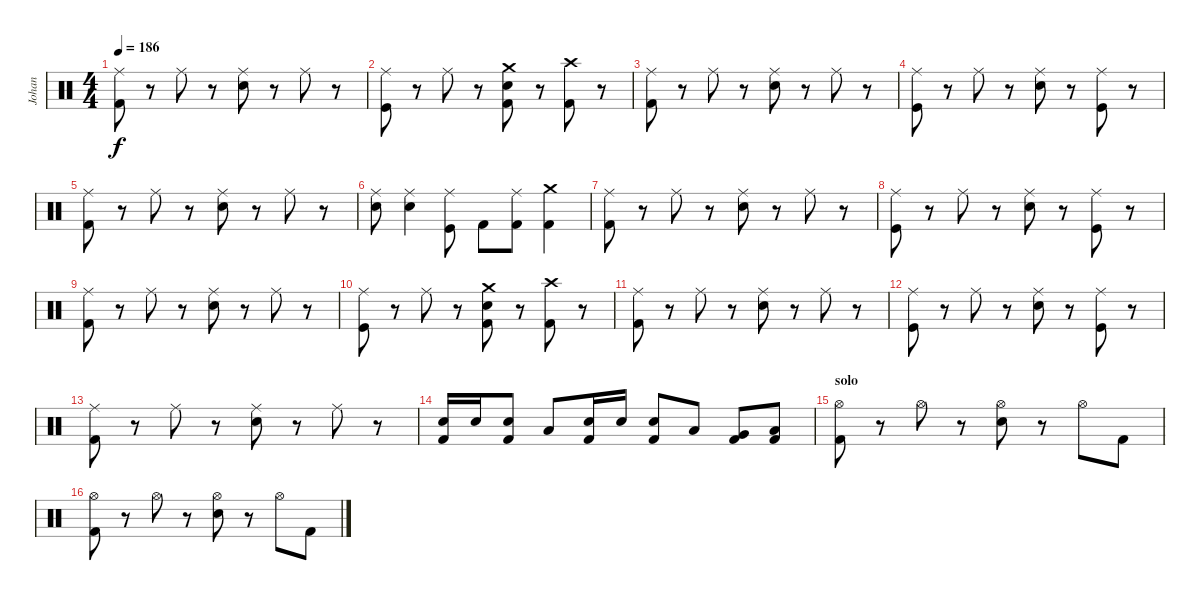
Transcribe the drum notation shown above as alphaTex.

\track ("Johan" "Johan") {instrument percussion}
\staff {score}
\articulation defaults
\ts (4 4)
\tempo 186
\clef neutral
\ks c
("Ride (middle)" "Kick (hit) 2").8{dy f} r.8 "Ride (middle)".8 r.8 ("Ride (middle)" "Snare (hit) 2").8 r.8 "Ride (middle)".8 r.8 |
("Ride (middle)" "Kick (hit)").8 r.8 "Ride (middle)".8 r.8 ("Crash medium (hit)" "Snare (hit) 2" "Kick (hit) 2").8 r.8 ("Crash high (hit)" "Kick (hit) 2").8 r.8 |
("Ride (middle)" "Kick (hit) 2").8 r.8 "Ride (middle)".8 r.8 ("Ride (middle)" "Snare (hit) 2").8 r.8 "Ride (middle)".8 r.8 |
("Ride (middle)" "Kick (hit)").8 r.8 "Ride (middle)".8 r.8 ("Ride (middle)" "Snare (hit) 2").8 r.8 ("Ride (middle)" "Kick (hit)").8 r.8 |
("Ride (middle)" "Kick (hit) 2").8 r.8 "Ride (middle)".8 r.8 ("Ride (middle)" "Snare (hit) 2").8 r.8 "Ride (middle)".8 r.8 |
("Ride (middle)" "Snare (hit) 2").8 ("Ride (middle)" "Snare (hit) 2").4 ("Ride (middle)" "Kick (hit)").8 "Kick (hit) 2".8 ("Ride (middle)" "Kick (hit) 2").8 ("Crash medium (hit)" "Kick (hit) 2").4 |
("Ride (middle)" "Kick (hit) 2").8 r.8 "Ride (middle)".8 r.8 ("Ride (middle)" "Snare (hit) 2").8 r.8 "Ride (middle)".8 r.8 |
("Ride (middle)" "Kick (hit)").8 r.8 "Ride (middle)".8 r.8 ("Ride (middle)" "Snare (hit) 2").8 r.8 ("Ride (middle)" "Kick (hit)").8 r.8 |
("Ride (middle)" "Kick (hit) 2").8 r.8 "Ride (middle)".8 r.8 ("Ride (middle)" "Snare (hit) 2").8 r.8 "Ride (middle)".8 r.8 |
("Ride (middle)" "Kick (hit)").8 r.8 "Ride (middle)".8 r.8 ("Crash medium (hit)" "Snare (hit) 2" "Kick (hit) 2").8 r.8 ("Crash high (hit)" "Kick (hit) 2").8 r.8 |
("Ride (middle)" "Kick (hit) 2").8 r.8 "Ride (middle)".8 r.8 ("Ride (middle)" "Snare (hit) 2").8 r.8 "Ride (middle)".8 r.8 |
("Ride (middle)" "Kick (hit)").8 r.8 "Ride (middle)".8 r.8 ("Ride (middle)" "Snare (hit) 2").8 r.8 ("Ride (middle)" "Kick (hit)").8 r.8 |
("Ride (middle)" "Kick (hit) 2").8 r.8 "Ride (middle)".8 r.8 ("Ride (middle)" "Snare (hit) 2").8 r.8 "Ride (middle)".8 r.8 |
("Snare (hit) 2" "Kick (hit) 2").16 "Snare (hit) 2".16 ("Snare (hit) 2" "Kick (hit) 2").8 "Low Tom (hit)".8 ("Snare (hit) 2" "Kick (hit) 2").16 "Snare (hit) 2".16 ("Snare (hit) 2" "Kick (hit) 2").8 "Low Tom (hit)".8 ("Very Low Tom (hit)" "Kick (hit) 2").8 ("Low Floor Tom (hit)" "Kick (hit) 2").8 |
\section ("" "solo")
("Hi-Hat (open)" "Kick (hit) 2").8 r.8 "Hi-Hat (open)".8 r.8 ("Hi-Hat (open)" "Snare (hit) 2").8 r.8 "Hi-Hat (open)".8 "Kick (hit) 2".8 |
("Hi-Hat (open)" "Kick (hit) 2").8 r.8 "Hi-Hat (open)".8 r.8 ("Hi-Hat (open)" "Snare (hit) 2").8 r.8 "Hi-Hat (open)".8 "Kick (hit) 2".8
